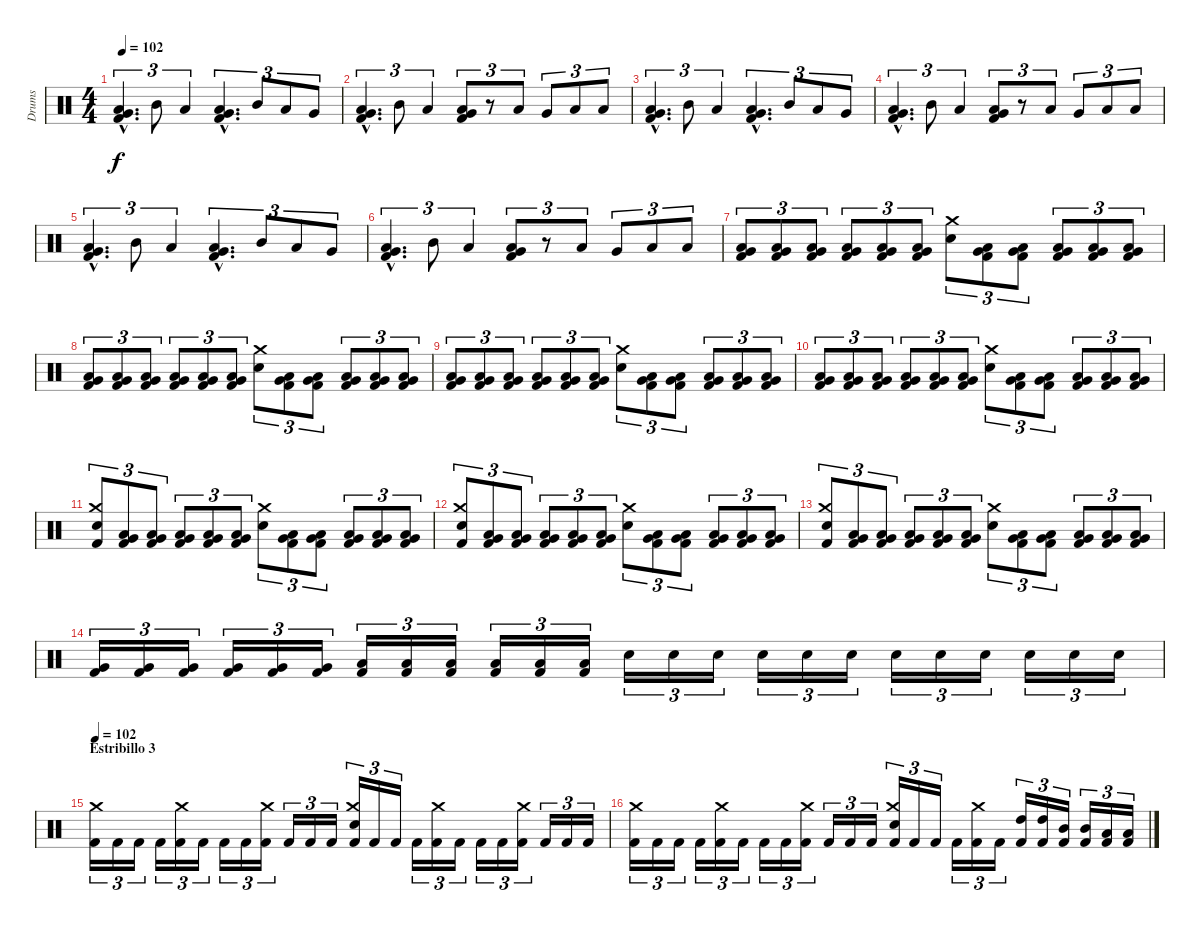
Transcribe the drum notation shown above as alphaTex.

\track ("Drums" "Drums") {instrument percussion}
\staff {score}
\articulation defaults
\ts (4 4)
\tempo 102
\clef neutral
\ks c
("Very Low Tom (hit)"{hac} "Low Floor Tom (hit)"{hac} "Kick (hit) 2"{hac}).4{d tu (3 2) dy f} "Mid Tom (hit)".8{tu (3 2)} "Low Tom (hit)".4{tu (3 2)} ("Very Low Tom (hit)"{hac} "Low Floor Tom (hit)"{hac} "Kick (hit) 2"{hac}).4{d tu (3 2)} "Mid Tom (hit)".8{tu (3 2)} "Low Tom (hit)".8{tu (3 2)} "Very Low Tom (hit)".8{tu (3 2)} |
("Very Low Tom (hit)"{hac} "Low Floor Tom (hit)"{hac} "Kick (hit) 2"{hac}).4{d tu (3 2)} "Mid Tom (hit)".8{tu (3 2)} "Low Tom (hit)".4{tu (3 2)} ("Very Low Tom (hit)" "Low Floor Tom (hit)" "Kick (hit) 2").8{tu (3 2)} r.8{tu (3 2)} "Low Tom (hit)".8{tu (3 2)} "Very Low Tom (hit)".8{tu (3 2)} "Low Floor Tom (hit)".8{tu (3 2)} "Low Floor Tom (hit)".8{tu (3 2)} |
("Very Low Tom (hit)"{hac} "Low Floor Tom (hit)"{hac} "Kick (hit) 2"{hac}).4{d tu (3 2)} "Mid Tom (hit)".8{tu (3 2)} "Low Tom (hit)".4{tu (3 2)} ("Very Low Tom (hit)"{hac} "Low Floor Tom (hit)"{hac} "Kick (hit) 2"{hac}).4{d tu (3 2)} "Mid Tom (hit)".8{tu (3 2)} "Low Tom (hit)".8{tu (3 2)} "Very Low Tom (hit)".8{tu (3 2)} |
("Very Low Tom (hit)"{hac} "Low Floor Tom (hit)"{hac} "Kick (hit) 2"{hac}).4{d tu (3 2)} "Mid Tom (hit)".8{tu (3 2)} "Low Tom (hit)".4{tu (3 2)} ("Very Low Tom (hit)" "Low Floor Tom (hit)" "Kick (hit) 2").8{tu (3 2)} r.8{tu (3 2)} "Low Tom (hit)".8{tu (3 2)} "Very Low Tom (hit)".8{tu (3 2)} "Low Floor Tom (hit)".8{tu (3 2)} "Low Floor Tom (hit)".8{tu (3 2)} |
("Very Low Tom (hit)"{hac} "Low Floor Tom (hit)"{hac} "Kick (hit) 2"{hac}).4{d tu (3 2)} "Mid Tom (hit)".8{tu (3 2)} "Low Tom (hit)".4{tu (3 2)} ("Very Low Tom (hit)"{hac} "Low Floor Tom (hit)"{hac} "Kick (hit) 2"{hac}).4{d tu (3 2)} "Mid Tom (hit)".8{tu (3 2)} "Low Tom (hit)".8{tu (3 2)} "Very Low Tom (hit)".8{tu (3 2)} |
("Very Low Tom (hit)"{hac} "Low Floor Tom (hit)"{hac} "Kick (hit) 2"{hac}).4{d tu (3 2)} "Mid Tom (hit)".8{tu (3 2)} "Low Tom (hit)".4{tu (3 2)} ("Very Low Tom (hit)" "Low Floor Tom (hit)" "Kick (hit) 2").8{tu (3 2)} r.8{tu (3 2)} "Low Tom (hit)".8{tu (3 2)} "Very Low Tom (hit)".8{tu (3 2)} "Low Floor Tom (hit)".8{tu (3 2)} "Low Floor Tom (hit)".8{tu (3 2)} |
("Very Low Tom (hit)" "Low Floor Tom (hit)" "Kick (hit) 2").8{tu (3 2)} ("Very Low Tom (hit)" "Low Floor Tom (hit)" "Kick (hit) 2").8{tu (3 2)} ("Very Low Tom (hit)" "Low Floor Tom (hit)" "Kick (hit) 2").8{tu (3 2)} ("Very Low Tom (hit)" "Low Floor Tom (hit)" "Kick (hit) 2").8{tu (3 2)} ("Very Low Tom (hit)" "Low Floor Tom (hit)" "Kick (hit) 2").8{tu (3 2)} ("Very Low Tom (hit)" "Low Floor Tom (hit)" "Kick (hit) 2").8{tu (3 2)} ("Crash medium (hit)" "Snare (hit) 2").8{tu (3 2)} ("Very Low Tom (hit)" "Low Floor Tom (hit)" "Kick (hit) 2").8{tu (3 2)} ("Very Low Tom (hit)" "Low Floor Tom (hit)" "Kick (hit) 2").8{tu (3 2)} ("Very Low Tom (hit)" "Low Floor Tom (hit)" "Kick (hit) 2").8{tu (3 2)} ("Very Low Tom (hit)" "Low Floor Tom (hit)" "Kick (hit) 2").8{tu (3 2)} ("Very Low Tom (hit)" "Low Floor Tom (hit)" "Kick (hit) 2").8{tu (3 2)} |
("Very Low Tom (hit)" "Low Floor Tom (hit)" "Kick (hit) 2").8{tu (3 2)} ("Very Low Tom (hit)" "Low Floor Tom (hit)" "Kick (hit) 2").8{tu (3 2)} ("Very Low Tom (hit)" "Low Floor Tom (hit)" "Kick (hit) 2").8{tu (3 2)} ("Very Low Tom (hit)" "Low Floor Tom (hit)" "Kick (hit) 2").8{tu (3 2)} ("Very Low Tom (hit)" "Low Floor Tom (hit)" "Kick (hit) 2").8{tu (3 2)} ("Very Low Tom (hit)" "Low Floor Tom (hit)" "Kick (hit) 2").8{tu (3 2)} ("Crash medium (hit)" "Snare (hit) 2").8{tu (3 2)} ("Very Low Tom (hit)" "Low Floor Tom (hit)" "Kick (hit) 2").8{tu (3 2)} ("Very Low Tom (hit)" "Low Floor Tom (hit)" "Kick (hit) 2").8{tu (3 2)} ("Very Low Tom (hit)" "Low Floor Tom (hit)" "Kick (hit) 2").8{tu (3 2)} ("Very Low Tom (hit)" "Low Floor Tom (hit)" "Kick (hit) 2").8{tu (3 2)} ("Very Low Tom (hit)" "Low Floor Tom (hit)" "Kick (hit) 2").8{tu (3 2)} |
("Very Low Tom (hit)" "Low Floor Tom (hit)" "Kick (hit) 2").8{tu (3 2)} ("Very Low Tom (hit)" "Low Floor Tom (hit)" "Kick (hit) 2").8{tu (3 2)} ("Very Low Tom (hit)" "Low Floor Tom (hit)" "Kick (hit) 2").8{tu (3 2)} ("Very Low Tom (hit)" "Low Floor Tom (hit)" "Kick (hit) 2").8{tu (3 2)} ("Very Low Tom (hit)" "Low Floor Tom (hit)" "Kick (hit) 2").8{tu (3 2)} ("Very Low Tom (hit)" "Low Floor Tom (hit)" "Kick (hit) 2").8{tu (3 2)} ("Crash medium (hit)" "Snare (hit) 2").8{tu (3 2)} ("Very Low Tom (hit)" "Low Floor Tom (hit)" "Kick (hit) 2").8{tu (3 2)} ("Very Low Tom (hit)" "Low Floor Tom (hit)" "Kick (hit) 2").8{tu (3 2)} ("Very Low Tom (hit)" "Low Floor Tom (hit)" "Kick (hit) 2").8{tu (3 2)} ("Very Low Tom (hit)" "Low Floor Tom (hit)" "Kick (hit) 2").8{tu (3 2)} ("Very Low Tom (hit)" "Low Floor Tom (hit)" "Kick (hit) 2").8{tu (3 2)} |
("Very Low Tom (hit)" "Low Floor Tom (hit)" "Kick (hit) 2").8{tu (3 2)} ("Very Low Tom (hit)" "Low Floor Tom (hit)" "Kick (hit) 2").8{tu (3 2)} ("Very Low Tom (hit)" "Low Floor Tom (hit)" "Kick (hit) 2").8{tu (3 2)} ("Very Low Tom (hit)" "Low Floor Tom (hit)" "Kick (hit) 2").8{tu (3 2)} ("Very Low Tom (hit)" "Low Floor Tom (hit)" "Kick (hit) 2").8{tu (3 2)} ("Very Low Tom (hit)" "Low Floor Tom (hit)" "Kick (hit) 2").8{tu (3 2)} ("Crash medium (hit)" "Snare (hit) 2").8{tu (3 2)} ("Very Low Tom (hit)" "Low Floor Tom (hit)" "Kick (hit) 2").8{tu (3 2)} ("Very Low Tom (hit)" "Low Floor Tom (hit)" "Kick (hit) 2").8{tu (3 2)} ("Very Low Tom (hit)" "Low Floor Tom (hit)" "Kick (hit) 2").8{tu (3 2)} ("Very Low Tom (hit)" "Low Floor Tom (hit)" "Kick (hit) 2").8{tu (3 2)} ("Very Low Tom (hit)" "Low Floor Tom (hit)" "Kick (hit) 2").8{tu (3 2)} |
("Crash medium (hit)" "Snare (hit) 2" "Kick (hit) 2").8{tu (3 2)} ("Very Low Tom (hit)" "Low Floor Tom (hit)" "Kick (hit) 2").8{tu (3 2)} ("Very Low Tom (hit)" "Low Floor Tom (hit)" "Kick (hit) 2").8{tu (3 2)} ("Very Low Tom (hit)" "Low Floor Tom (hit)" "Kick (hit) 2").8{tu (3 2)} ("Very Low Tom (hit)" "Low Floor Tom (hit)" "Kick (hit) 2").8{tu (3 2)} ("Very Low Tom (hit)" "Low Floor Tom (hit)" "Kick (hit) 2").8{tu (3 2)} ("Crash medium (hit)" "Snare (hit) 2").8{tu (3 2)} ("Very Low Tom (hit)" "Low Floor Tom (hit)" "Kick (hit) 2").8{tu (3 2)} ("Very Low Tom (hit)" "Low Floor Tom (hit)" "Kick (hit) 2").8{tu (3 2)} ("Very Low Tom (hit)" "Low Floor Tom (hit)" "Kick (hit) 2").8{tu (3 2)} ("Very Low Tom (hit)" "Low Floor Tom (hit)" "Kick (hit) 2").8{tu (3 2)} ("Very Low Tom (hit)" "Low Floor Tom (hit)" "Kick (hit) 2").8{tu (3 2)} |
("Crash medium (hit)" "Snare (hit) 2" "Kick (hit) 2").8{tu (3 2)} ("Very Low Tom (hit)" "Low Floor Tom (hit)" "Kick (hit) 2").8{tu (3 2)} ("Very Low Tom (hit)" "Low Floor Tom (hit)" "Kick (hit) 2").8{tu (3 2)} ("Very Low Tom (hit)" "Low Floor Tom (hit)" "Kick (hit) 2").8{tu (3 2)} ("Very Low Tom (hit)" "Low Floor Tom (hit)" "Kick (hit) 2").8{tu (3 2)} ("Very Low Tom (hit)" "Low Floor Tom (hit)" "Kick (hit) 2").8{tu (3 2)} ("Crash medium (hit)" "Snare (hit) 2").8{tu (3 2)} ("Very Low Tom (hit)" "Low Floor Tom (hit)" "Kick (hit) 2").8{tu (3 2)} ("Very Low Tom (hit)" "Low Floor Tom (hit)" "Kick (hit) 2").8{tu (3 2)} ("Very Low Tom (hit)" "Low Floor Tom (hit)" "Kick (hit) 2").8{tu (3 2)} ("Very Low Tom (hit)" "Low Floor Tom (hit)" "Kick (hit) 2").8{tu (3 2)} ("Very Low Tom (hit)" "Low Floor Tom (hit)" "Kick (hit) 2").8{tu (3 2)} |
("Crash medium (hit)" "Snare (hit) 2" "Kick (hit) 2").8{tu (3 2)} ("Very Low Tom (hit)" "Low Floor Tom (hit)" "Kick (hit) 2").8{tu (3 2)} ("Very Low Tom (hit)" "Low Floor Tom (hit)" "Kick (hit) 2").8{tu (3 2)} ("Very Low Tom (hit)" "Low Floor Tom (hit)" "Kick (hit) 2").8{tu (3 2)} ("Very Low Tom (hit)" "Low Floor Tom (hit)" "Kick (hit) 2").8{tu (3 2)} ("Very Low Tom (hit)" "Low Floor Tom (hit)" "Kick (hit) 2").8{tu (3 2)} ("Crash medium (hit)" "Snare (hit) 2").8{tu (3 2)} ("Very Low Tom (hit)" "Low Floor Tom (hit)" "Kick (hit) 2").8{tu (3 2)} ("Very Low Tom (hit)" "Low Floor Tom (hit)" "Kick (hit) 2").8{tu (3 2)} ("Very Low Tom (hit)" "Low Floor Tom (hit)" "Kick (hit) 2").8{tu (3 2)} ("Very Low Tom (hit)" "Low Floor Tom (hit)" "Kick (hit) 2").8{tu (3 2)} ("Very Low Tom (hit)" "Low Floor Tom (hit)" "Kick (hit) 2").8{tu (3 2)} |
("Very Low Tom (hit)" "Kick (hit) 2").16{tu (3 2)} ("Very Low Tom (hit)" "Kick (hit) 2").16{tu (3 2)} ("Very Low Tom (hit)" "Kick (hit) 2").16{tu (3 2)} ("Very Low Tom (hit)" "Kick (hit) 2").16{tu (3 2)} ("Very Low Tom (hit)" "Kick (hit) 2").16{tu (3 2)} ("Very Low Tom (hit)" "Kick (hit) 2").16{tu (3 2)} ("Low Floor Tom (hit)" "Kick (hit) 2").16{tu (3 2)} ("Low Floor Tom (hit)" "Kick (hit) 2").16{tu (3 2)} ("Low Floor Tom (hit)" "Kick (hit) 2").16{tu (3 2)} ("Low Floor Tom (hit)" "Kick (hit) 2").16{tu (3 2)} ("Low Floor Tom (hit)" "Kick (hit) 2").16{tu (3 2)} ("Low Floor Tom (hit)" "Kick (hit) 2").16{tu (3 2)} "Snare (hit) 2".16{tu (3 2)} "Snare (hit) 2".16{tu (3 2)} "Snare (hit) 2".16{tu (3 2)} "Snare (hit) 2".16{tu (3 2)} "Snare (hit) 2".16{tu (3 2)} "Snare (hit) 2".16{tu (3 2)} "Snare (hit) 2".16{tu (3 2)} "Snare (hit) 2".16{tu (3 2)} "Snare (hit) 2".16{tu (3 2)} "Snare (hit) 2".16{tu (3 2)} "Snare (hit) 2".16{tu (3 2)} "Snare (hit) 2".16{tu (3 2)} |
\section ("" "Estribillo 3")
\tempo 102
("Crash medium (hit)" "Kick (hit) 2").16{tu (3 2)} "Kick (hit) 2".16{tu (3 2)} "Kick (hit) 2".16{tu (3 2)} "Kick (hit) 2".16{tu (3 2)} ("Crash medium (hit)" "Kick (hit) 2").16{tu (3 2)} "Kick (hit) 2".16{tu (3 2)} "Kick (hit) 2".16{tu (3 2)} "Kick (hit) 2".16{tu (3 2)} ("Crash medium (hit)" "Kick (hit) 2").16{tu (3 2)} "Kick (hit) 2".16{tu (3 2)} "Kick (hit) 2".16{tu (3 2)} "Kick (hit) 2".16{tu (3 2)} ("Crash medium (hit)" "Snare (hit) 2" "Kick (hit) 2").16{tu (3 2)} "Kick (hit) 2".16{tu (3 2)} "Kick (hit) 2".16{tu (3 2)} "Kick (hit) 2".16{tu (3 2)} ("Crash medium (hit)" "Kick (hit) 2").16{tu (3 2)} "Kick (hit) 2".16{tu (3 2)} "Kick (hit) 2".16{tu (3 2)} "Kick (hit) 2".16{tu (3 2)} ("Crash medium (hit)" "Kick (hit) 2").16{tu (3 2)} "Kick (hit) 2".16{tu (3 2)} "Kick (hit) 2".16{tu (3 2)} "Kick (hit) 2".16{tu (3 2)} |
("Crash medium (hit)" "Kick (hit) 2").16{tu (3 2)} "Kick (hit) 2".16{tu (3 2)} "Kick (hit) 2".16{tu (3 2)} "Kick (hit) 2".16{tu (3 2)} ("Crash medium (hit)" "Kick (hit) 2").16{tu (3 2)} "Kick (hit) 2".16{tu (3 2)} "Kick (hit) 2".16{tu (3 2)} "Kick (hit) 2".16{tu (3 2)} ("Crash medium (hit)" "Kick (hit) 2").16{tu (3 2)} "Kick (hit) 2".16{tu (3 2)} "Kick (hit) 2".16{tu (3 2)} "Kick (hit) 2".16{tu (3 2)} ("Crash medium (hit)" "Snare (hit) 2" "Kick (hit) 2").16{tu (3 2)} "Kick (hit) 2".16{tu (3 2)} "Kick (hit) 2".16{tu (3 2)} "Kick (hit) 2".16{tu (3 2)} ("Crash medium (hit)" "Kick (hit) 2").16{tu (3 2)} "Kick (hit) 2".16{tu (3 2)} ("High Tom (hit)" "Kick (hit) 2").16{tu (3 2)} ("High Tom (hit)" "Kick (hit) 2").16{tu (3 2)} ("Mid Tom (hit)" "Kick (hit) 2").16{tu (3 2)} ("Mid Tom (hit)" "Kick (hit) 2").16{tu (3 2)} ("Low Tom (hit)" "Kick (hit) 2").16{tu (3 2)} ("Low Tom (hit)" "Kick (hit) 2").16{tu (3 2)}
